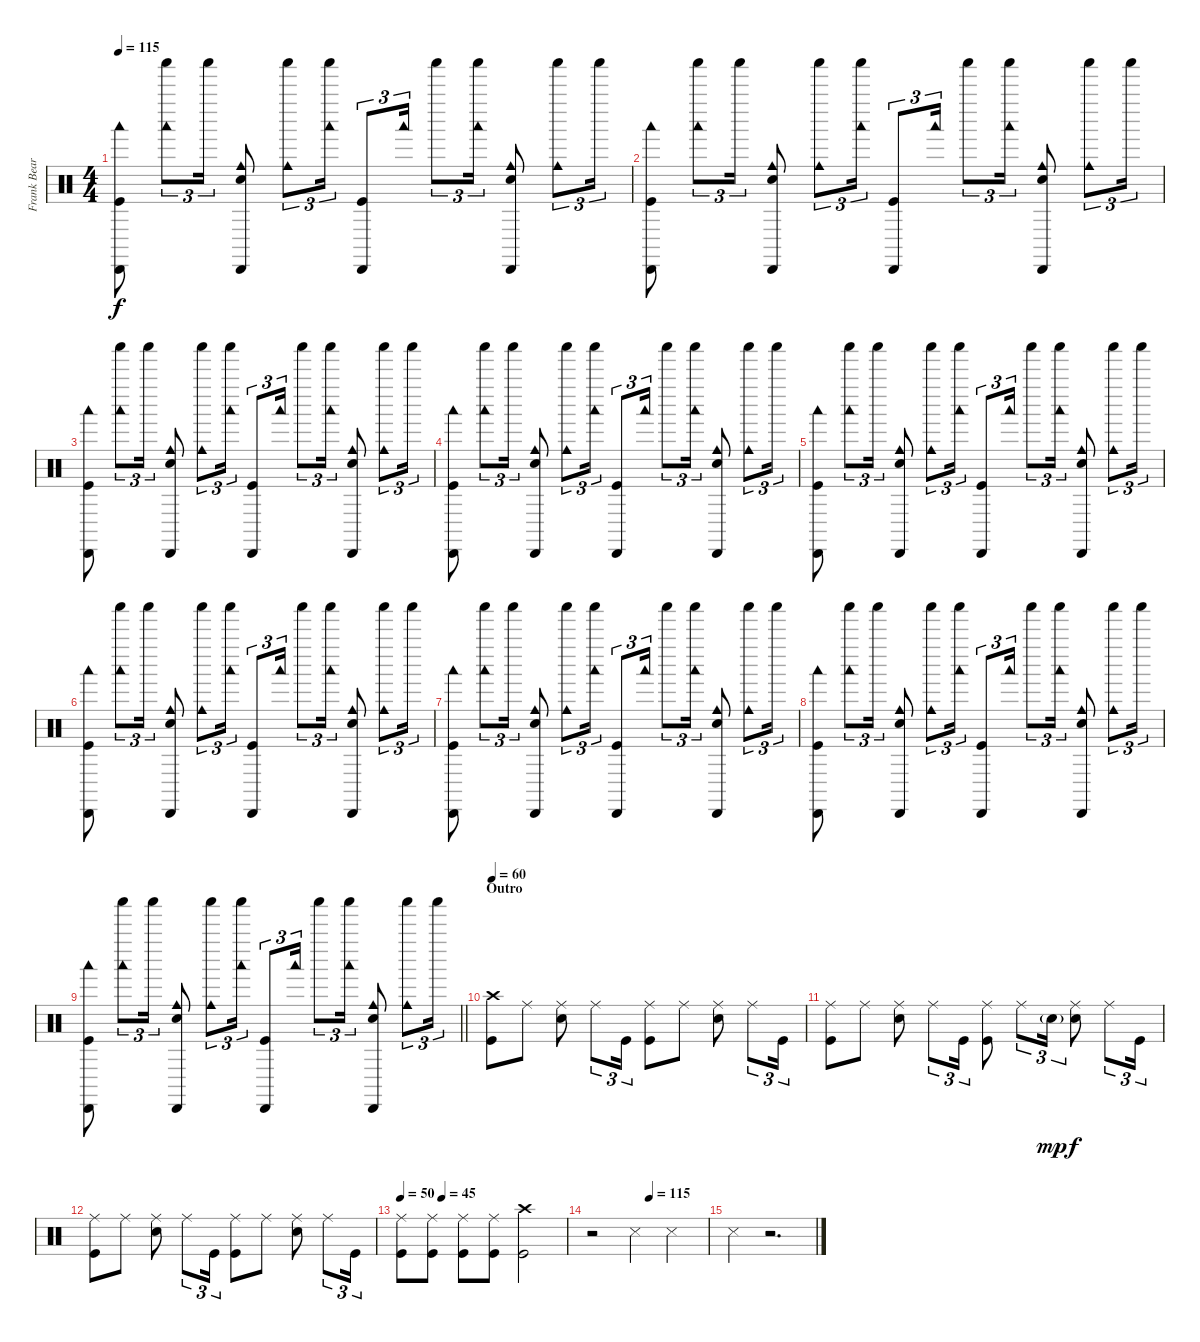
\track ("Frank Beard" "Frank Bear") {instrument percussion}
\staff {score}
\articulation defaults
\ts (4 4)
\tempo 115
\clef neutral
\ks c
("Woodblock low (hit)" "Cabasa (hit)" "Kick (hit)").8{dy f} ("Woodblock low (hit)" "Shaker (hit)").8{tu (3 2)} "Shaker (hit)".16{tu (3 2)} ("Cowbell medium (hit)" "Snare (hit) 2" "Cabasa (hit)").8 ("Cowbell medium (hit)" "Shaker (hit)").8{tu (3 2)} ("Woodblock low (hit)" "Shaker (hit)").16{tu (3 2)} ("Cabasa (hit)" "Kick (hit)").8{tu (3 2)} "Woodblock low (hit)".16{tu (3 2)} "Shaker (hit)".8{tu (3 2)} ("Woodblock low (hit)" "Shaker (hit)").16{tu (3 2)} ("Cowbell medium (hit)" "Snare (hit) 2" "Cabasa (hit)").8 ("Cowbell medium (hit)" "Shaker (hit)").8{tu (3 2)} "Shaker (hit)".16{tu (3 2)} |
("Woodblock low (hit)" "Cabasa (hit)" "Kick (hit)").8 ("Woodblock low (hit)" "Shaker (hit)").8{tu (3 2)} "Shaker (hit)".16{tu (3 2)} ("Cowbell medium (hit)" "Snare (hit) 2" "Cabasa (hit)").8 ("Cowbell medium (hit)" "Shaker (hit)").8{tu (3 2)} ("Woodblock low (hit)" "Shaker (hit)").16{tu (3 2)} ("Cabasa (hit)" "Kick (hit)").8{tu (3 2)} "Woodblock low (hit)".16{tu (3 2)} "Shaker (hit)".8{tu (3 2)} ("Woodblock low (hit)" "Shaker (hit)").16{tu (3 2)} ("Cowbell medium (hit)" "Snare (hit) 2" "Cabasa (hit)").8 ("Cowbell medium (hit)" "Shaker (hit)").8{tu (3 2)} "Shaker (hit)".16{tu (3 2)} |
("Woodblock low (hit)" "Cabasa (hit)" "Kick (hit)").8 ("Woodblock low (hit)" "Shaker (hit)").8{tu (3 2)} "Shaker (hit)".16{tu (3 2)} ("Cowbell medium (hit)" "Snare (hit) 2" "Cabasa (hit)").8 ("Cowbell medium (hit)" "Shaker (hit)").8{tu (3 2)} ("Woodblock low (hit)" "Shaker (hit)").16{tu (3 2)} ("Cabasa (hit)" "Kick (hit)").8{tu (3 2)} "Woodblock low (hit)".16{tu (3 2)} "Shaker (hit)".8{tu (3 2)} ("Woodblock low (hit)" "Shaker (hit)").16{tu (3 2)} ("Cowbell medium (hit)" "Snare (hit) 2" "Cabasa (hit)").8 ("Cowbell medium (hit)" "Shaker (hit)").8{tu (3 2)} "Shaker (hit)".16{tu (3 2)} |
("Woodblock low (hit)" "Cabasa (hit)" "Kick (hit)").8 ("Woodblock low (hit)" "Shaker (hit)").8{tu (3 2)} "Shaker (hit)".16{tu (3 2)} ("Cowbell medium (hit)" "Snare (hit) 2" "Cabasa (hit)").8 ("Cowbell medium (hit)" "Shaker (hit)").8{tu (3 2)} ("Woodblock low (hit)" "Shaker (hit)").16{tu (3 2)} ("Cabasa (hit)" "Kick (hit)").8{tu (3 2)} "Woodblock low (hit)".16{tu (3 2)} "Shaker (hit)".8{tu (3 2)} ("Woodblock low (hit)" "Shaker (hit)").16{tu (3 2)} ("Cowbell medium (hit)" "Snare (hit) 2" "Cabasa (hit)").8 ("Cowbell medium (hit)" "Shaker (hit)").8{tu (3 2)} "Shaker (hit)".16{tu (3 2)} |
("Woodblock low (hit)" "Cabasa (hit)" "Kick (hit)").8 ("Woodblock low (hit)" "Shaker (hit)").8{tu (3 2)} "Shaker (hit)".16{tu (3 2)} ("Cowbell medium (hit)" "Snare (hit) 2" "Cabasa (hit)").8 ("Cowbell medium (hit)" "Shaker (hit)").8{tu (3 2)} ("Woodblock low (hit)" "Shaker (hit)").16{tu (3 2)} ("Cabasa (hit)" "Kick (hit)").8{tu (3 2)} "Woodblock low (hit)".16{tu (3 2)} "Shaker (hit)".8{tu (3 2)} ("Woodblock low (hit)" "Shaker (hit)").16{tu (3 2)} ("Cowbell medium (hit)" "Snare (hit) 2" "Cabasa (hit)").8 ("Cowbell medium (hit)" "Shaker (hit)").8{tu (3 2)} "Shaker (hit)".16{tu (3 2)} |
("Woodblock low (hit)" "Cabasa (hit)" "Kick (hit)").8 ("Woodblock low (hit)" "Shaker (hit)").8{tu (3 2)} "Shaker (hit)".16{tu (3 2)} ("Cowbell medium (hit)" "Snare (hit) 2" "Cabasa (hit)").8 ("Cowbell medium (hit)" "Shaker (hit)").8{tu (3 2)} ("Woodblock low (hit)" "Shaker (hit)").16{tu (3 2)} ("Cabasa (hit)" "Kick (hit)").8{tu (3 2)} "Woodblock low (hit)".16{tu (3 2)} "Shaker (hit)".8{tu (3 2)} ("Woodblock low (hit)" "Shaker (hit)").16{tu (3 2)} ("Cowbell medium (hit)" "Snare (hit) 2" "Cabasa (hit)").8 ("Cowbell medium (hit)" "Shaker (hit)").8{tu (3 2)} "Shaker (hit)".16{tu (3 2)} |
("Woodblock low (hit)" "Cabasa (hit)" "Kick (hit)").8 ("Woodblock low (hit)" "Shaker (hit)").8{tu (3 2)} "Shaker (hit)".16{tu (3 2)} ("Cowbell medium (hit)" "Snare (hit) 2" "Cabasa (hit)").8 ("Cowbell medium (hit)" "Shaker (hit)").8{tu (3 2)} ("Woodblock low (hit)" "Shaker (hit)").16{tu (3 2)} ("Cabasa (hit)" "Kick (hit)").8{tu (3 2)} "Woodblock low (hit)".16{tu (3 2)} "Shaker (hit)".8{tu (3 2)} ("Woodblock low (hit)" "Shaker (hit)").16{tu (3 2)} ("Cowbell medium (hit)" "Snare (hit) 2" "Cabasa (hit)").8 ("Cowbell medium (hit)" "Shaker (hit)").8{tu (3 2)} "Shaker (hit)".16{tu (3 2)} |
("Woodblock low (hit)" "Cabasa (hit)" "Kick (hit)").8 ("Woodblock low (hit)" "Shaker (hit)").8{tu (3 2)} "Shaker (hit)".16{tu (3 2)} ("Cowbell medium (hit)" "Snare (hit) 2" "Cabasa (hit)").8 ("Cowbell medium (hit)" "Shaker (hit)").8{tu (3 2)} ("Woodblock low (hit)" "Shaker (hit)").16{tu (3 2)} ("Cabasa (hit)" "Kick (hit)").8{tu (3 2)} "Woodblock low (hit)".16{tu (3 2)} "Shaker (hit)".8{tu (3 2)} ("Woodblock low (hit)" "Shaker (hit)").16{tu (3 2)} ("Cowbell medium (hit)" "Snare (hit) 2" "Cabasa (hit)").8 ("Cowbell medium (hit)" "Shaker (hit)").8{tu (3 2)} "Shaker (hit)".16{tu (3 2)} |
\barLineRight lightlight
("Woodblock low (hit)" "Cabasa (hit)" "Kick (hit)").8 ("Woodblock low (hit)" "Shaker (hit)").8{tu (3 2)} "Shaker (hit)".16{tu (3 2)} ("Cowbell medium (hit)" "Snare (hit) 2" "Cabasa (hit)").8 ("Cowbell medium (hit)" "Shaker (hit)").8{tu (3 2)} ("Woodblock low (hit)" "Shaker (hit)").16{tu (3 2)} ("Cabasa (hit)" "Kick (hit)").8{tu (3 2)} "Woodblock low (hit)".16{tu (3 2)} "Shaker (hit)".8{tu (3 2)} ("Woodblock low (hit)" "Shaker (hit)").16{tu (3 2)} ("Cowbell medium (hit)" "Snare (hit) 2" "Cabasa (hit)").8 ("Cowbell medium (hit)" "Shaker (hit)").8{tu (3 2)} "Shaker (hit)".16{tu (3 2)} |
\section ("" "Outro")
\tempo 60
("Crash high (hit)" "Kick (hit)").8 "Ride (middle)".8 ("Ride (middle)" "Snare (hit) 2").8 "Ride (middle)".8{tu (3 2)} "Kick (hit)".16{tu (3 2)} ("Ride (middle)" "Kick (hit)").8 "Ride (middle)".8 ("Ride (middle)" "Snare (hit) 2").8 "Ride (middle)".8{tu (3 2)} "Kick (hit)".16{tu (3 2)} |
("Ride (middle)" "Kick (hit)").8 "Ride (middle)".8 ("Ride (middle)" "Snare (hit) 2").8 "Ride (middle)".8{tu (3 2)} "Kick (hit)".16{tu (3 2)} ("Ride (middle)" "Kick (hit)").8 "Ride (middle)".8{tu (3 2)} "Snare (hit) 2"{g}.16{tu (3 2) dy mp} ("Ride (middle)" "Snare (hit) 2").8{dy f} "Ride (middle)".8{tu (3 2)} "Kick (hit)".16{tu (3 2)} |
("Ride (middle)" "Kick (hit)").8 "Ride (middle)".8 ("Ride (middle)" "Snare (hit) 2").8 "Ride (middle)".8{tu (3 2)} "Kick (hit)".16{tu (3 2)} ("Ride (middle)" "Kick (hit)").8 "Ride (middle)".8 ("Ride (middle)" "Snare (hit) 2").8 "Ride (middle)".8{tu (3 2)} "Kick (hit)".16{tu (3 2)} |
\tempo 50
\tempo (45 0.25)
("Ride (middle)" "Kick (hit)").8 ("Ride (middle)" "Kick (hit)").8 ("Ride (middle)" "Kick (hit)").8 ("Ride (middle)" "Kick (hit)").8 ("Crash high (hit)" "Kick (hit)").2 |
\tempo (115 0.5)
r.2 "Snare (side stick) 3".4 "Snare (side stick) 3".4 |
"Snare (side stick) 3".4 r.2{d}
